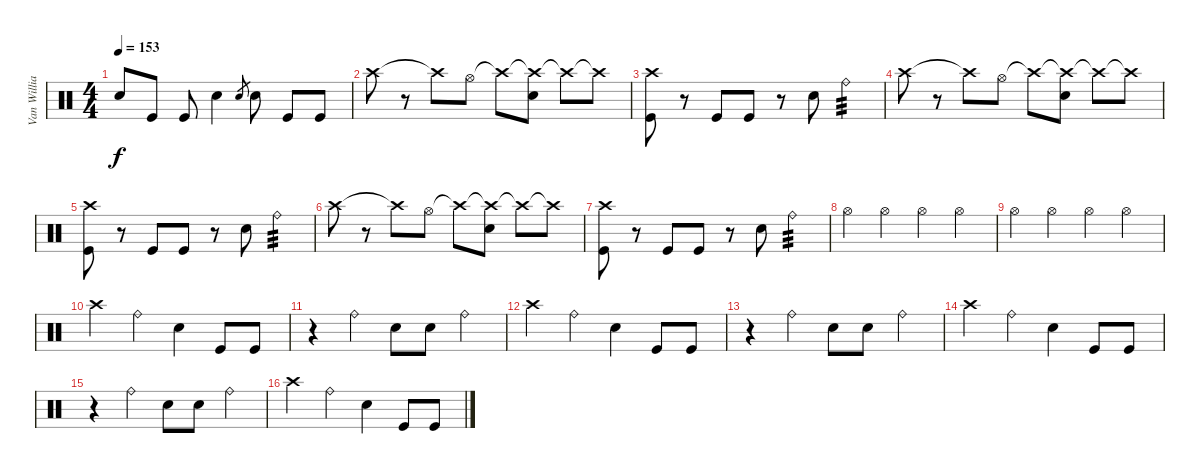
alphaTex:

\track ("Van Williams" "Van Willia") {instrument percussion}
\staff {score}
\articulation defaults
\ts (4 4)
\tempo 153
\clef neutral
\ks c "Electric Snare (hit)".8{dy f} "Kick (hit)".8 "Kick (hit)".8 "Electric Snare (hit)".4 "Electric Snare (hit)".8{gr} "Electric Snare (hit)".8 "Kick (hit)".8 "Kick (hit)".8
|
"Crash high (hit)".8 r.8 "Crash high (hit)"{t}.8 "Hi-Hat (open)".8 "Crash high (hit)"{t}.8 ("Crash high (hit)"{t} "Electric Snare (hit)").8 "Crash high (hit)"{t}.8 "Crash high (hit)"{t}.8 |
("Crash high (hit)" "Kick (hit)").8 r.8 "Kick (hit)".8 "Kick (hit)".8 r.8 "Electric Snare (hit)".8 "Ride (bell)".4{tp 3} |
"Crash high (hit)".8 r.8 "Crash high (hit)"{t}.8 "Hi-Hat (open)".8 "Crash high (hit)"{t}.8 ("Crash high (hit)"{t} "Electric Snare (hit)").8 "Crash high (hit)"{t}.8 "Crash high (hit)"{t}.8 |
("Crash high (hit)" "Kick (hit)").8 r.8 "Kick (hit)".8 "Kick (hit)".8 r.8 "Electric Snare (hit)".8 "Ride (bell)".4{tp 3} |
"Crash high (hit)".8 r.8 "Crash high (hit)"{t}.8 "Hi-Hat (open)".8 "Crash high (hit)"{t}.8 ("Crash high (hit)"{t} "Electric Snare (hit)").8 "Crash high (hit)"{t}.8 "Crash high (hit)"{t}.8 |
("Crash high (hit)" "Kick (hit)").8 r.8 "Kick (hit)".8 "Kick (hit)".8 r.8 "Electric Snare (hit)".8 "Ride (bell)".4{tp 3} |
"Hi-Hat (open)".4 "Hi-Hat (open)".4 "Hi-Hat (open)".4 "Hi-Hat (open)".4 |
"Hi-Hat (open)".4 "Hi-Hat (open)".4 "Hi-Hat (open)".4 "Hi-Hat (open)".4 |
"Crash high (hit)".4 "Ride (bell)".4 "Electric Snare (hit)".4 "Kick (hit)".8 "Kick (hit)".8 |
r.4 "Ride (bell)".4 "Electric Snare (hit)".8 "Electric Snare (hit)".8 "Ride (bell)".4 |
"Crash high (hit)".4 "Ride (bell)".4 "Electric Snare (hit)".4 "Kick (hit)".8 "Kick (hit)".8 |
r.4 "Ride (bell)".4 "Electric Snare (hit)".8 "Electric Snare (hit)".8 "Ride (bell)".4 |
"Crash high (hit)".4 "Ride (bell)".4 "Electric Snare (hit)".4 "Kick (hit)".8 "Kick (hit)".8 |
r.4 "Ride (bell)".4 "Electric Snare (hit)".8 "Electric Snare (hit)".8 "Ride (bell)".4 |
"Crash high (hit)".4 "Ride (bell)".4 "Electric Snare (hit)".4 "Kick (hit)".8 "Kick (hit)".8
